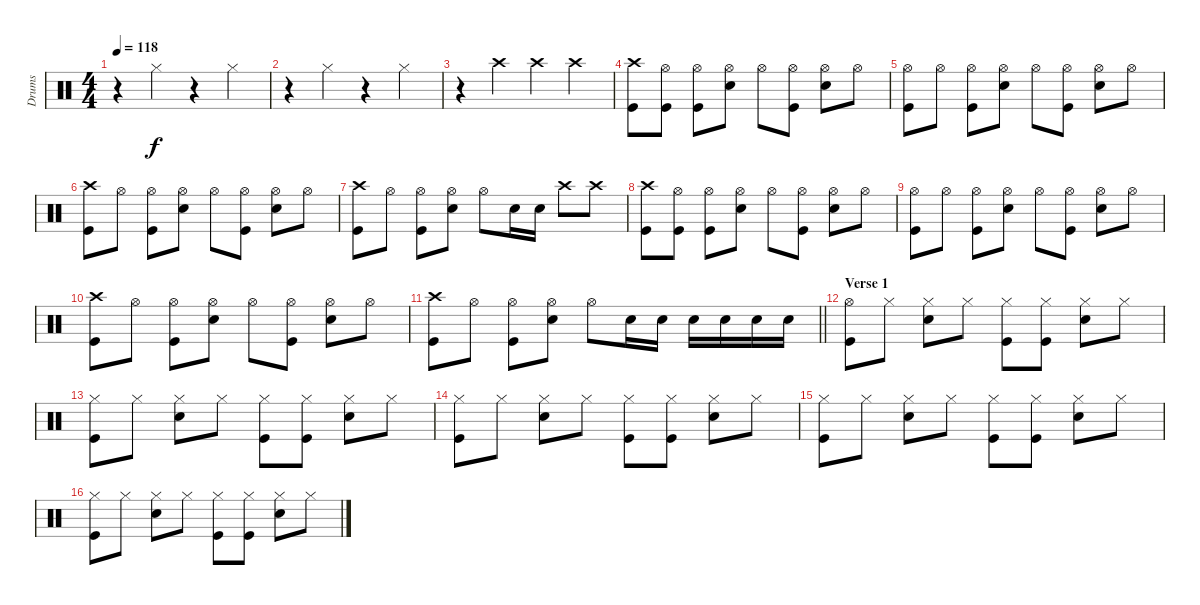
\track ("Drums" "Drums") {instrument percussion}
\staff {score}
\articulation defaults
\ts (4 4)
\tempo 118
\clef neutral
\ks c
r.4{dy f} "Hi-Hat (closed)".4 r.4 "Hi-Hat (closed)".4 |
r.4 "Hi-Hat (closed)".4 r.4 "Hi-Hat (closed)".4 |
r.4 "Crash high (hit)".4 "Crash high (hit)".4 "Crash high (hit)".4 |
("Crash high (hit)" "Kick (hit)").8 ("Hi-Hat (open)" "Kick (hit)").8 ("Hi-Hat (open)" "Kick (hit)").8 ("Hi-Hat (open)" "Electric Snare (hit)").8 "Hi-Hat (open)".8 ("Hi-Hat (open)" "Kick (hit)").8 ("Hi-Hat (open)" "Electric Snare (hit)").8 "Hi-Hat (open)".8 |
("Hi-Hat (open)" "Kick (hit)").8 "Hi-Hat (open)".8 ("Hi-Hat (open)" "Kick (hit)").8 ("Hi-Hat (open)" "Electric Snare (hit)").8 "Hi-Hat (open)".8 ("Hi-Hat (open)" "Kick (hit)").8 ("Hi-Hat (open)" "Electric Snare (hit)").8 "Hi-Hat (open)".8 |
("Crash high (hit)" "Kick (hit)").8 "Hi-Hat (open)".8 ("Hi-Hat (open)" "Kick (hit)").8 ("Hi-Hat (open)" "Electric Snare (hit)").8 "Hi-Hat (open)".8 ("Hi-Hat (open)" "Kick (hit)").8 ("Hi-Hat (open)" "Electric Snare (hit)").8 "Hi-Hat (open)".8 |
("Crash high (hit)" "Kick (hit)").8 "Hi-Hat (open)".8 ("Hi-Hat (open)" "Kick (hit)").8 ("Hi-Hat (open)" "Electric Snare (hit)").8 "Hi-Hat (open)".8 "Electric Snare (hit)".16 "Electric Snare (hit)".16 "Crash high (hit)".8 "Crash high (hit)".8 |
("Crash high (hit)" "Kick (hit)").8 ("Hi-Hat (open)" "Kick (hit)").8 ("Hi-Hat (open)" "Kick (hit)").8 ("Hi-Hat (open)" "Electric Snare (hit)").8 "Hi-Hat (open)".8 ("Hi-Hat (open)" "Kick (hit)").8 ("Hi-Hat (open)" "Electric Snare (hit)").8 "Hi-Hat (open)".8 |
("Hi-Hat (open)" "Kick (hit)").8 "Hi-Hat (open)".8 ("Hi-Hat (open)" "Kick (hit)").8 ("Hi-Hat (open)" "Electric Snare (hit)").8 "Hi-Hat (open)".8 ("Hi-Hat (open)" "Kick (hit)").8 ("Hi-Hat (open)" "Electric Snare (hit)").8 "Hi-Hat (open)".8 |
("Crash high (hit)" "Kick (hit)").8 "Hi-Hat (open)".8 ("Hi-Hat (open)" "Kick (hit)").8 ("Hi-Hat (open)" "Electric Snare (hit)").8 "Hi-Hat (open)".8 ("Hi-Hat (open)" "Kick (hit)").8 ("Hi-Hat (open)" "Electric Snare (hit)").8 "Hi-Hat (open)".8 |
\barLineRight lightlight
("Crash high (hit)" "Kick (hit)").8 "Hi-Hat (open)".8 ("Hi-Hat (open)" "Kick (hit)").8 ("Hi-Hat (open)" "Electric Snare (hit)").8 "Hi-Hat (open)".8 "Electric Snare (hit)".16 "Electric Snare (hit)".16 "Electric Snare (hit)".16 "Electric Snare (hit)".16 "Electric Snare (hit)".16 "Electric Snare (hit)".16 |
\section ("" "Verse 1")
("Hi-Hat (open)" "Kick (hit)").8 "Hi-Hat (closed)".8 ("Hi-Hat (closed)" "Electric Snare (hit)").8 "Hi-Hat (closed)".8 ("Hi-Hat (closed)" "Kick (hit)").8 ("Hi-Hat (closed)" "Kick (hit)").8 ("Hi-Hat (closed)" "Electric Snare (hit)").8 "Hi-Hat (closed)".8 |
("Hi-Hat (closed)" "Kick (hit)").8 "Hi-Hat (closed)".8 ("Hi-Hat (closed)" "Electric Snare (hit)").8 "Hi-Hat (closed)".8 ("Hi-Hat (closed)" "Kick (hit)").8 ("Hi-Hat (closed)" "Kick (hit)").8 ("Hi-Hat (closed)" "Electric Snare (hit)").8 "Hi-Hat (closed)".8 |
("Hi-Hat (closed)" "Kick (hit)").8 "Hi-Hat (closed)".8 ("Hi-Hat (closed)" "Electric Snare (hit)").8 "Hi-Hat (closed)".8 ("Hi-Hat (closed)" "Kick (hit)").8 ("Hi-Hat (closed)" "Kick (hit)").8 ("Hi-Hat (closed)" "Electric Snare (hit)").8 "Hi-Hat (closed)".8 |
("Hi-Hat (closed)" "Kick (hit)").8 "Hi-Hat (closed)".8 ("Hi-Hat (closed)" "Electric Snare (hit)").8 "Hi-Hat (closed)".8 ("Hi-Hat (closed)" "Kick (hit)").8 ("Hi-Hat (closed)" "Kick (hit)").8 ("Hi-Hat (closed)" "Electric Snare (hit)").8 "Hi-Hat (closed)".8 |
("Hi-Hat (closed)" "Kick (hit)").8 "Hi-Hat (closed)".8 ("Hi-Hat (closed)" "Electric Snare (hit)").8 "Hi-Hat (closed)".8 ("Hi-Hat (closed)" "Kick (hit)").8 ("Hi-Hat (closed)" "Kick (hit)").8 ("Hi-Hat (closed)" "Electric Snare (hit)").8 "Hi-Hat (closed)".8
